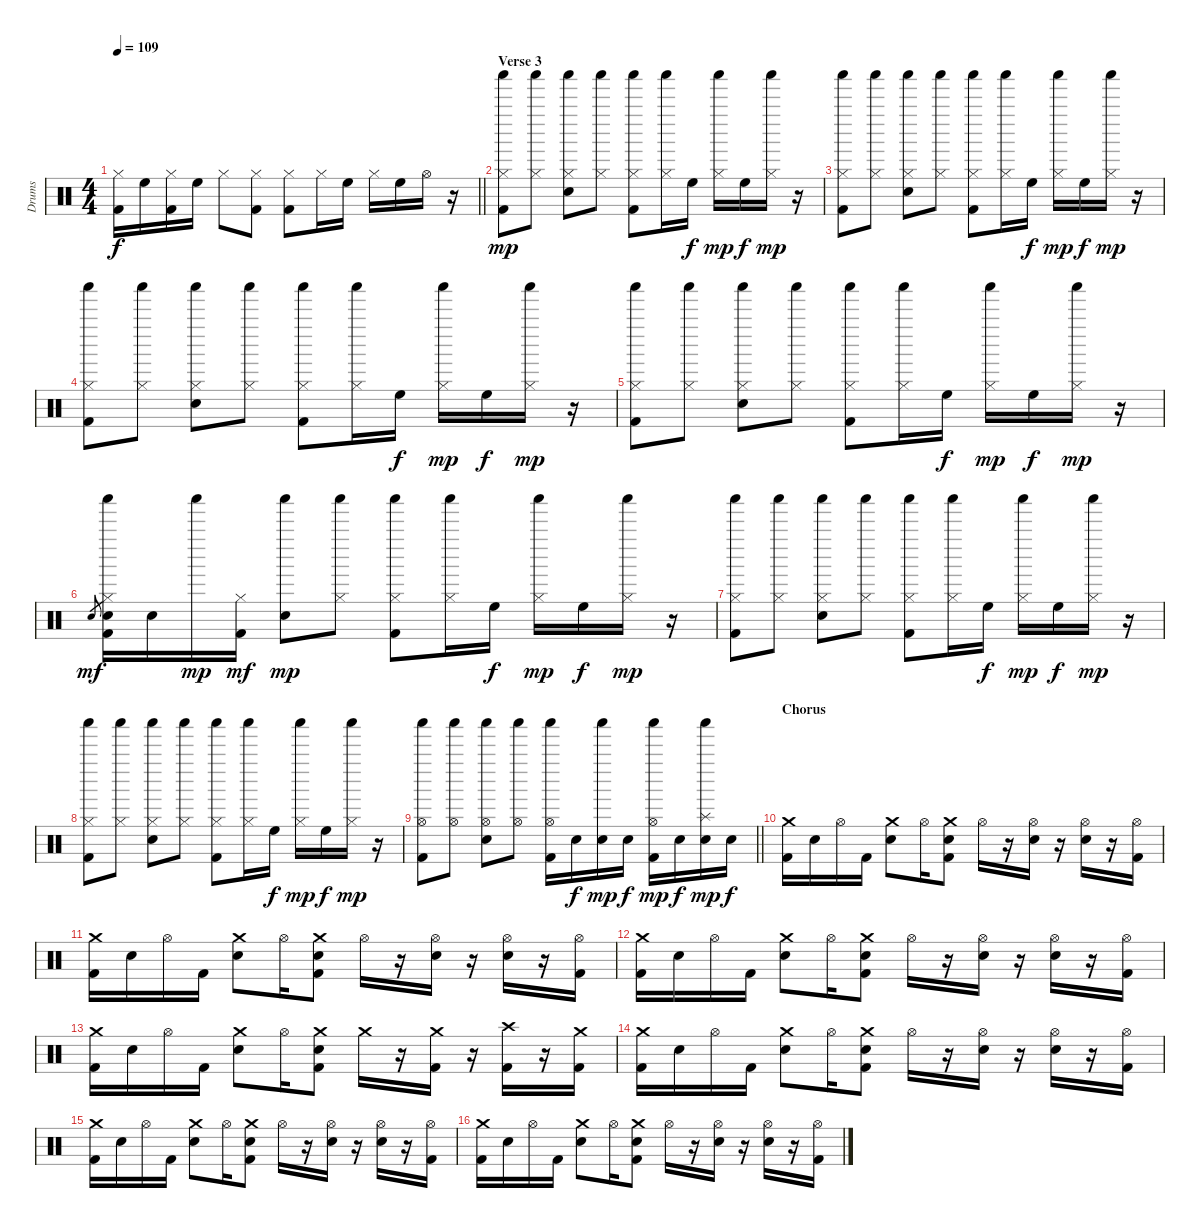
\track ("Drums" "Drums") {instrument percussion}
\staff {score}
\articulation defaults
\ts (4 4)
\tempo 109
\clef neutral
\barLineRight lightlight
\ks c
("Hi-Hat (closed)" "Kick (hit) 2").16{dy f} "High Floor Tom (hit)".16 ("Hi-Hat (closed)" "Kick (hit) 2").16 "High Floor Tom (hit)".16 "Hi-Hat (closed)".8 ("Hi-Hat (closed)" "Kick (hit) 2").8 ("Hi-Hat (closed)" "Kick (hit) 2").8 "Hi-Hat (closed)".16 "High Floor Tom (hit)".16 "Hi-Hat (closed)".16 "High Floor Tom (hit)".16 "Hi-Hat (open)".16 r.16 |
\section ("" "Verse 3")
("Hi-Hat (closed)" "Shaker (hit)" "Kick (hit) 2").8{dy mp} ("Hi-Hat (closed)" "Shaker (hit)").8 ("Hi-Hat (closed)" "Shaker (hit)" "Electric Snare (hit)").8 ("Hi-Hat (closed)" "Shaker (hit)").8 ("Hi-Hat (closed)" "Shaker (hit)" "Kick (hit) 2").8 ("Hi-Hat (closed)" "Shaker (hit)").16 "High Floor Tom (hit)".16{dy f} ("Hi-Hat (closed)" "Shaker (hit)").16{dy mp} "High Floor Tom (hit)".16{dy f} ("Hi-Hat (closed)" "Shaker (hit)").16{dy mp} r.16 |
("Hi-Hat (closed)" "Shaker (hit)" "Kick (hit) 2").8 ("Hi-Hat (closed)" "Shaker (hit)").8 ("Hi-Hat (closed)" "Shaker (hit)" "Electric Snare (hit)").8 ("Hi-Hat (closed)" "Shaker (hit)").8 ("Hi-Hat (closed)" "Shaker (hit)" "Kick (hit) 2").8 ("Hi-Hat (closed)" "Shaker (hit)").16 "High Floor Tom (hit)".16{dy f} ("Hi-Hat (closed)" "Shaker (hit)").16{dy mp} "High Floor Tom (hit)".16{dy f} ("Hi-Hat (closed)" "Shaker (hit)").16{dy mp} r.16 |
("Hi-Hat (closed)" "Shaker (hit)" "Kick (hit) 2").8 ("Hi-Hat (closed)" "Shaker (hit)").8 ("Hi-Hat (closed)" "Shaker (hit)" "Electric Snare (hit)").8 ("Hi-Hat (closed)" "Shaker (hit)").8 ("Hi-Hat (closed)" "Shaker (hit)" "Kick (hit) 2").8 ("Hi-Hat (closed)" "Shaker (hit)").16 "High Floor Tom (hit)".16{dy f} ("Hi-Hat (closed)" "Shaker (hit)").16{dy mp} "High Floor Tom (hit)".16{dy f} ("Hi-Hat (closed)" "Shaker (hit)").16{dy mp} r.16 |
("Hi-Hat (closed)" "Shaker (hit)" "Kick (hit) 2").8 ("Hi-Hat (closed)" "Shaker (hit)").8 ("Hi-Hat (closed)" "Shaker (hit)" "Electric Snare (hit)").8 ("Hi-Hat (closed)" "Shaker (hit)").8 ("Hi-Hat (closed)" "Shaker (hit)" "Kick (hit) 2").8 ("Hi-Hat (closed)" "Shaker (hit)").16 "High Floor Tom (hit)".16{dy f} ("Hi-Hat (closed)" "Shaker (hit)").16{dy mp} "High Floor Tom (hit)".16{dy f} ("Hi-Hat (closed)" "Shaker (hit)").16{dy mp} r.16 |
"Electric Snare (hit)".8{gr dy mf} ("Hi-Hat (closed)" "Shaker (hit)" "Electric Snare (hit)" "Kick (hit) 2").16 "Electric Snare (hit)".16 "Shaker (hit)".16{dy mp} ("Hi-Hat (closed)" "Kick (hit) 2").16{dy mf} ("Shaker (hit)" "Electric Snare (hit)").8{dy mp} ("Hi-Hat (closed)" "Shaker (hit)").8 ("Hi-Hat (closed)" "Shaker (hit)" "Kick (hit) 2").8 ("Hi-Hat (closed)" "Shaker (hit)").16 "High Floor Tom (hit)".16{dy f} ("Hi-Hat (closed)" "Shaker (hit)").16{dy mp} "High Floor Tom (hit)".16{dy f} ("Hi-Hat (closed)" "Shaker (hit)").16{dy mp} r.16 |
("Hi-Hat (closed)" "Shaker (hit)" "Kick (hit) 2").8 ("Hi-Hat (closed)" "Shaker (hit)").8 ("Hi-Hat (closed)" "Shaker (hit)" "Electric Snare (hit)").8 ("Hi-Hat (closed)" "Shaker (hit)").8 ("Hi-Hat (closed)" "Shaker (hit)" "Kick (hit) 2").8 ("Hi-Hat (closed)" "Shaker (hit)").16 "High Floor Tom (hit)".16{dy f} ("Hi-Hat (closed)" "Shaker (hit)").16{dy mp} "High Floor Tom (hit)".16{dy f} ("Hi-Hat (closed)" "Shaker (hit)").16{dy mp} r.16 |
("Hi-Hat (closed)" "Shaker (hit)" "Kick (hit) 2").8 ("Hi-Hat (closed)" "Shaker (hit)").8 ("Hi-Hat (closed)" "Shaker (hit)" "Electric Snare (hit)").8 ("Hi-Hat (closed)" "Shaker (hit)").8 ("Hi-Hat (closed)" "Shaker (hit)" "Kick (hit) 2").8 ("Hi-Hat (closed)" "Shaker (hit)").16 "High Floor Tom (hit)".16{dy f} ("Hi-Hat (closed)" "Shaker (hit)").16{dy mp} "High Floor Tom (hit)".16{dy f} ("Hi-Hat (closed)" "Shaker (hit)").16{dy mp} r.16 |
\barLineRight lightlight
("Hi-Hat (open)" "Shaker (hit)" "Kick (hit) 2").8 ("Hi-Hat (open)" "Shaker (hit)").8 ("Hi-Hat (open)" "Shaker (hit)" "Electric Snare (hit)").8 ("Hi-Hat (open)" "Shaker (hit)").8 ("Hi-Hat (open)" "Shaker (hit)" "Kick (hit) 2").16 "Electric Snare (hit)".16{dy f} ("Shaker (hit)" "Electric Snare (hit)").16{dy mp} "Electric Snare (hit)".16{dy f} ("Hi-Hat (open)" "Shaker (hit)" "Kick (hit) 2").16{dy mp} "Electric Snare (hit)".16{dy f} ("Splash (hit)" "Shaker (hit)" "Electric Snare (hit)").16{dy mp} "Electric Snare (hit)".16{dy f} |
\section ("" "Chorus")
("Crash medium (hit)" "Kick (hit) 2").16 "Electric Snare (hit)".16 "Hi-Hat (open)".16 "Kick (hit) 2".16 ("Crash medium (hit)" "Electric Snare (hit)").8 "Hi-Hat (open)".16 ("Crash medium (hit)" "Electric Snare (hit)" "Kick (hit) 2").8 "Hi-Hat (open)".16 r.16 ("Hi-Hat (open)" "Electric Snare (hit)").16 r.16 ("Hi-Hat (open)" "Electric Snare (hit)").16 r.16 ("Hi-Hat (open)" "Kick (hit) 2").16 |
("Crash medium (hit)" "Kick (hit) 2").16 "Electric Snare (hit)".16 "Hi-Hat (open)".16 "Kick (hit) 2".16 ("Crash medium (hit)" "Electric Snare (hit)").8 "Hi-Hat (open)".16 ("Crash medium (hit)" "Electric Snare (hit)" "Kick (hit) 2").8 "Hi-Hat (open)".16 r.16 ("Hi-Hat (open)" "Electric Snare (hit)").16 r.16 ("Hi-Hat (open)" "Electric Snare (hit)").16 r.16 ("Hi-Hat (open)" "Kick (hit) 2").16 |
("Crash medium (hit)" "Kick (hit) 2").16 "Electric Snare (hit)".16 "Hi-Hat (open)".16 "Kick (hit) 2".16 ("Crash medium (hit)" "Electric Snare (hit)").8 "Hi-Hat (open)".16 ("Crash medium (hit)" "Electric Snare (hit)" "Kick (hit) 2").8 "Hi-Hat (open)".16 r.16 ("Hi-Hat (open)" "Electric Snare (hit)").16 r.16 ("Hi-Hat (open)" "Electric Snare (hit)").16 r.16 ("Hi-Hat (open)" "Kick (hit) 2").16 |
("Crash medium (hit)" "Kick (hit) 2").16 "Electric Snare (hit)".16 "Hi-Hat (open)".16 "Kick (hit) 2".16 ("Crash medium (hit)" "Electric Snare (hit)").8 "Hi-Hat (open)".16 ("Crash medium (hit)" "Electric Snare (hit)" "Kick (hit) 2").8 "Crash medium (hit)".16 r.16 ("Crash medium (hit)" "Kick (hit) 2").16 r.16 ("Crash high (hit)" "Kick (hit) 2").16 r.16 ("Crash medium (hit)" "Kick (hit) 2").16 |
("Crash medium (hit)" "Kick (hit) 2").16 "Electric Snare (hit)".16 "Hi-Hat (open)".16 "Kick (hit) 2".16 ("Crash medium (hit)" "Electric Snare (hit)").8 "Hi-Hat (open)".16 ("Crash medium (hit)" "Electric Snare (hit)" "Kick (hit) 2").8 "Hi-Hat (open)".16 r.16 ("Hi-Hat (open)" "Electric Snare (hit)").16 r.16 ("Hi-Hat (open)" "Electric Snare (hit)").16 r.16 ("Hi-Hat (open)" "Kick (hit) 2").16 |
("Crash medium (hit)" "Kick (hit) 2").16 "Electric Snare (hit)".16 "Hi-Hat (open)".16 "Kick (hit) 2".16 ("Crash medium (hit)" "Electric Snare (hit)").8 "Hi-Hat (open)".16 ("Crash medium (hit)" "Electric Snare (hit)" "Kick (hit) 2").8 "Hi-Hat (open)".16 r.16 ("Hi-Hat (open)" "Electric Snare (hit)").16 r.16 ("Hi-Hat (open)" "Electric Snare (hit)").16 r.16 ("Hi-Hat (open)" "Kick (hit) 2").16 |
("Crash medium (hit)" "Kick (hit) 2").16 "Electric Snare (hit)".16 "Hi-Hat (open)".16 "Kick (hit) 2".16 ("Crash medium (hit)" "Electric Snare (hit)").8 "Hi-Hat (open)".16 ("Crash medium (hit)" "Electric Snare (hit)" "Kick (hit) 2").8 "Hi-Hat (open)".16 r.16 ("Hi-Hat (open)" "Electric Snare (hit)").16 r.16 ("Hi-Hat (open)" "Electric Snare (hit)").16 r.16 ("Hi-Hat (open)" "Kick (hit) 2").16
